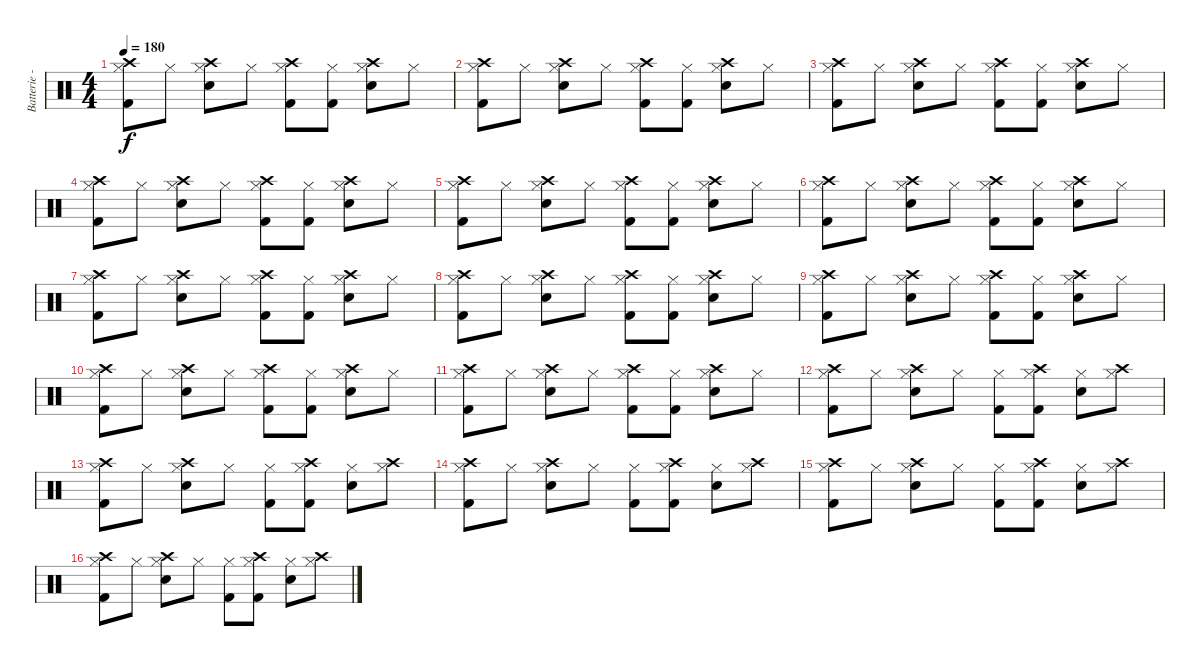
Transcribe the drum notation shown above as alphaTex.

\track ("Batterie - Stevo" "Batterie -") {instrument percussion}
\staff {score}
\articulation defaults
\ts (4 4)
\tempo 180
\clef neutral
\ks c
("Hi-Hat (closed)" "Kick (hit) 2" "Crash high (hit)").8{dy f} "Hi-Hat (closed)".8 ("Hi-Hat (closed)" "Electric Snare (hit)" "Crash high (hit)").8 "Hi-Hat (closed)".8 ("Hi-Hat (closed)" "Kick (hit) 2" "Crash high (hit)").8 ("Hi-Hat (closed)" "Kick (hit) 2").8 ("Hi-Hat (closed)" "Electric Snare (hit)" "Crash high (hit)").8 "Hi-Hat (closed)".8 |
("Hi-Hat (closed)" "Kick (hit) 2" "Crash high (hit)").8 "Hi-Hat (closed)".8 ("Hi-Hat (closed)" "Electric Snare (hit)" "Crash high (hit)").8 "Hi-Hat (closed)".8 ("Hi-Hat (closed)" "Kick (hit) 2" "Crash high (hit)").8 ("Hi-Hat (closed)" "Kick (hit) 2").8 ("Hi-Hat (closed)" "Electric Snare (hit)" "Crash high (hit)").8 "Hi-Hat (closed)".8 |
("Hi-Hat (closed)" "Kick (hit) 2" "Crash high (hit)").8 "Hi-Hat (closed)".8 ("Hi-Hat (closed)" "Electric Snare (hit)" "Crash high (hit)").8 "Hi-Hat (closed)".8 ("Hi-Hat (closed)" "Kick (hit) 2" "Crash high (hit)").8 ("Hi-Hat (closed)" "Kick (hit) 2").8 ("Hi-Hat (closed)" "Electric Snare (hit)" "Crash high (hit)").8 "Hi-Hat (closed)".8 |
("Hi-Hat (closed)" "Kick (hit) 2" "Crash high (hit)").8 "Hi-Hat (closed)".8 ("Hi-Hat (closed)" "Electric Snare (hit)" "Crash high (hit)").8 "Hi-Hat (closed)".8 ("Hi-Hat (closed)" "Kick (hit) 2" "Crash high (hit)").8 ("Hi-Hat (closed)" "Kick (hit) 2").8 ("Hi-Hat (closed)" "Electric Snare (hit)" "Crash high (hit)").8 "Hi-Hat (closed)".8 |
("Hi-Hat (closed)" "Kick (hit) 2" "Crash high (hit)").8 "Hi-Hat (closed)".8 ("Hi-Hat (closed)" "Electric Snare (hit)" "Crash high (hit)").8 "Hi-Hat (closed)".8 ("Hi-Hat (closed)" "Kick (hit) 2" "Crash high (hit)").8 ("Hi-Hat (closed)" "Kick (hit) 2").8 ("Hi-Hat (closed)" "Electric Snare (hit)" "Crash high (hit)").8 "Hi-Hat (closed)".8 |
("Hi-Hat (closed)" "Kick (hit) 2" "Crash high (hit)").8 "Hi-Hat (closed)".8 ("Hi-Hat (closed)" "Electric Snare (hit)" "Crash high (hit)").8 "Hi-Hat (closed)".8 ("Hi-Hat (closed)" "Kick (hit) 2" "Crash high (hit)").8 ("Hi-Hat (closed)" "Kick (hit) 2").8 ("Hi-Hat (closed)" "Electric Snare (hit)" "Crash high (hit)").8 "Hi-Hat (closed)".8 |
("Hi-Hat (closed)" "Kick (hit) 2" "Crash high (hit)").8 "Hi-Hat (closed)".8 ("Hi-Hat (closed)" "Electric Snare (hit)" "Crash high (hit)").8 "Hi-Hat (closed)".8 ("Hi-Hat (closed)" "Kick (hit) 2" "Crash high (hit)").8 ("Hi-Hat (closed)" "Kick (hit) 2").8 ("Hi-Hat (closed)" "Electric Snare (hit)" "Crash high (hit)").8 "Hi-Hat (closed)".8 |
("Hi-Hat (closed)" "Kick (hit) 2" "Crash high (hit)").8 "Hi-Hat (closed)".8 ("Hi-Hat (closed)" "Electric Snare (hit)" "Crash high (hit)").8 "Hi-Hat (closed)".8 ("Hi-Hat (closed)" "Kick (hit) 2" "Crash high (hit)").8 ("Hi-Hat (closed)" "Kick (hit) 2").8 ("Hi-Hat (closed)" "Electric Snare (hit)" "Crash high (hit)").8 "Hi-Hat (closed)".8 |
("Hi-Hat (closed)" "Kick (hit) 2" "Crash high (hit)").8 "Hi-Hat (closed)".8 ("Hi-Hat (closed)" "Electric Snare (hit)" "Crash high (hit)").8 "Hi-Hat (closed)".8 ("Hi-Hat (closed)" "Kick (hit) 2" "Crash high (hit)").8 ("Hi-Hat (closed)" "Kick (hit) 2").8 ("Hi-Hat (closed)" "Electric Snare (hit)" "Crash high (hit)").8 "Hi-Hat (closed)".8 |
("Hi-Hat (closed)" "Kick (hit) 2" "Crash high (hit)").8 "Hi-Hat (closed)".8 ("Hi-Hat (closed)" "Electric Snare (hit)" "Crash high (hit)").8 "Hi-Hat (closed)".8 ("Hi-Hat (closed)" "Kick (hit) 2" "Crash high (hit)").8 ("Hi-Hat (closed)" "Kick (hit) 2").8 ("Hi-Hat (closed)" "Electric Snare (hit)" "Crash high (hit)").8 "Hi-Hat (closed)".8 |
("Hi-Hat (closed)" "Kick (hit) 2" "Crash high (hit)").8 "Hi-Hat (closed)".8 ("Hi-Hat (closed)" "Electric Snare (hit)" "Crash high (hit)").8 "Hi-Hat (closed)".8 ("Hi-Hat (closed)" "Kick (hit) 2" "Crash high (hit)").8 ("Hi-Hat (closed)" "Kick (hit) 2").8 ("Hi-Hat (closed)" "Electric Snare (hit)" "Crash high (hit)").8 "Hi-Hat (closed)".8 |
("Hi-Hat (closed)" "Kick (hit) 2" "Crash high (hit)").8 "Hi-Hat (closed)".8 ("Hi-Hat (closed)" "Electric Snare (hit)" "Crash high (hit)").8 "Hi-Hat (closed)".8 ("Hi-Hat (closed)" "Kick (hit) 2").8 ("Hi-Hat (closed)" "Kick (hit) 2" "Crash high (hit)").8 ("Hi-Hat (closed)" "Electric Snare (hit)").8 ("Hi-Hat (closed)" "Crash high (hit)").8 |
("Hi-Hat (closed)" "Kick (hit) 2" "Crash high (hit)").8 "Hi-Hat (closed)".8 ("Hi-Hat (closed)" "Electric Snare (hit)" "Crash high (hit)").8 "Hi-Hat (closed)".8 ("Hi-Hat (closed)" "Kick (hit) 2").8 ("Hi-Hat (closed)" "Kick (hit) 2" "Crash high (hit)").8 ("Hi-Hat (closed)" "Electric Snare (hit)").8 ("Hi-Hat (closed)" "Crash high (hit)").8 |
("Hi-Hat (closed)" "Kick (hit) 2" "Crash high (hit)").8 "Hi-Hat (closed)".8 ("Hi-Hat (closed)" "Electric Snare (hit)" "Crash high (hit)").8 "Hi-Hat (closed)".8 ("Hi-Hat (closed)" "Kick (hit) 2").8 ("Hi-Hat (closed)" "Kick (hit) 2" "Crash high (hit)").8 ("Hi-Hat (closed)" "Electric Snare (hit)").8 ("Hi-Hat (closed)" "Crash high (hit)").8 |
("Hi-Hat (closed)" "Kick (hit) 2" "Crash high (hit)").8 "Hi-Hat (closed)".8 ("Hi-Hat (closed)" "Electric Snare (hit)" "Crash high (hit)").8 "Hi-Hat (closed)".8 ("Hi-Hat (closed)" "Kick (hit) 2").8 ("Hi-Hat (closed)" "Kick (hit) 2" "Crash high (hit)").8 ("Hi-Hat (closed)" "Electric Snare (hit)").8 ("Hi-Hat (closed)" "Crash high (hit)").8 |
("Hi-Hat (closed)" "Kick (hit) 2" "Crash high (hit)").8 "Hi-Hat (closed)".8 ("Hi-Hat (closed)" "Electric Snare (hit)" "Crash high (hit)").8 "Hi-Hat (closed)".8 ("Hi-Hat (closed)" "Kick (hit) 2").8 ("Hi-Hat (closed)" "Kick (hit) 2" "Crash high (hit)").8 ("Hi-Hat (closed)" "Electric Snare (hit)").8 ("Hi-Hat (closed)" "Crash high (hit)").8
